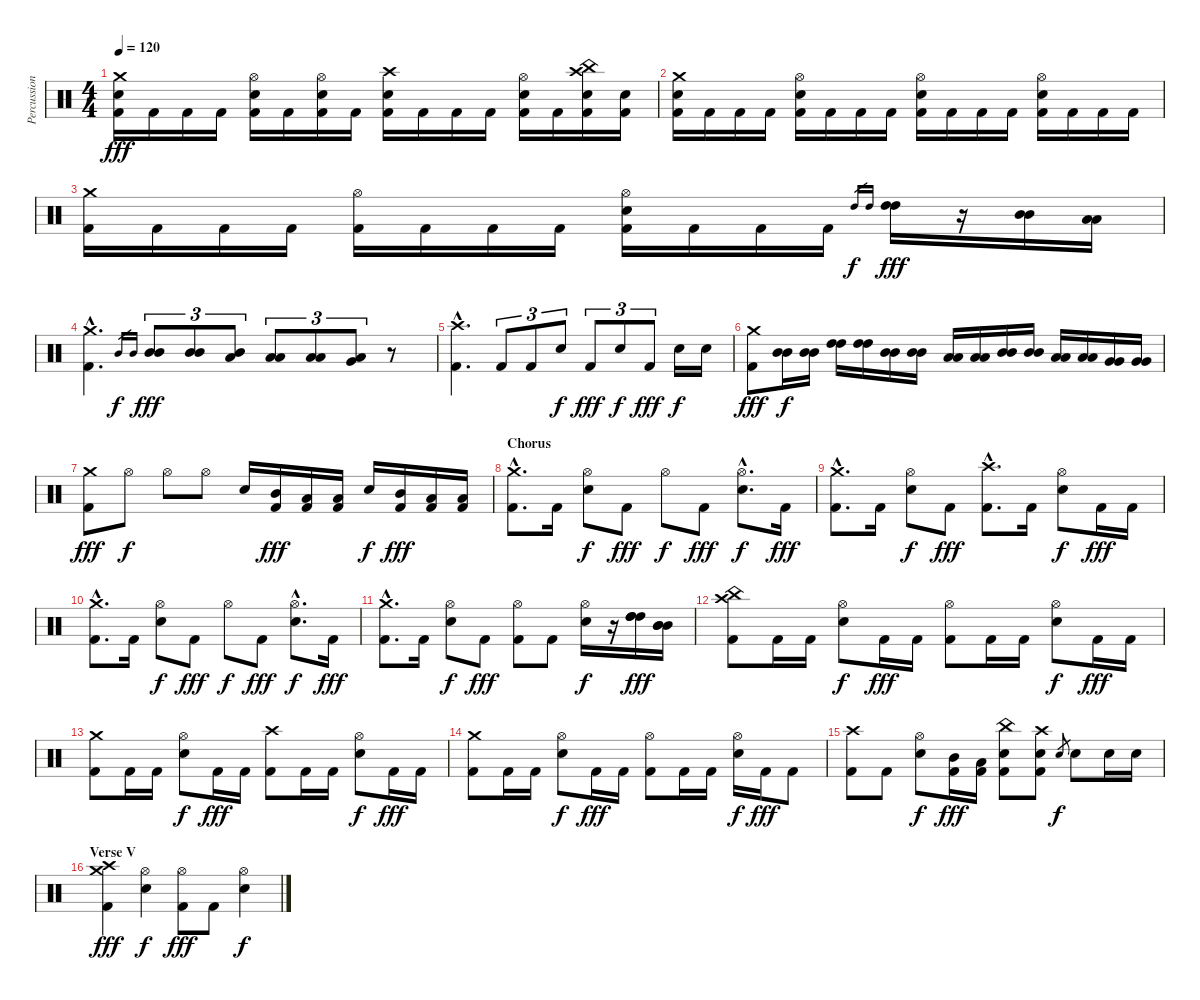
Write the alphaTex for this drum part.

\track ("Percussion" "Percussion") {instrument percussion}
\staff {score}
\articulation defaults
\ts (4 4)
\tempo 120
\clef neutral
\ks c
("Crash medium (hit)" "Snare (hit) 2" "Kick (hit) 2").16{dy fff} "Kick (hit) 2".16 "Kick (hit) 2".16 "Kick (hit) 2".16 ("Hi-Hat (open)" "Snare (hit) 2" "Kick (hit) 2").16 "Kick (hit) 2".16 ("Hi-Hat (open)" "Snare (hit) 2" "Kick (hit) 2").16 "Kick (hit) 2".16 ("Crash high (hit)" "Snare (hit) 2" "Kick (hit) 2").16 "Kick (hit) 2".16 "Kick (hit) 2".16 "Kick (hit) 2".16 ("Hi-Hat (open)" "Snare (hit) 2" "Kick (hit) 2").16 "Kick (hit) 2".16 ("China (hit)" "Crash high (hit)" "Snare (hit) 2" "Kick (hit) 2").16 ("Snare (hit) 2" "Kick (hit) 2").16 |
("Crash medium (hit)" "Snare (hit) 2" "Kick (hit) 2").16 "Kick (hit) 2".16 "Kick (hit) 2".16 "Kick (hit) 2".16 ("Hi-Hat (open)" "Snare (hit) 2" "Kick (hit) 2").16 "Kick (hit) 2".16 "Kick (hit) 2".16 "Kick (hit) 2".16 ("Hi-Hat (open)" "Snare (hit) 2" "Kick (hit) 2").16 "Kick (hit) 2".16 "Kick (hit) 2".16 "Kick (hit) 2".16 ("Hi-Hat (open)" "Snare (hit) 2" "Kick (hit) 2").16 "Kick (hit) 2".16 "Kick (hit) 2".16 "Kick (hit) 2".16 |
("Crash medium (hit)" "Kick (hit) 2").16 "Kick (hit) 2".16 "Kick (hit) 2".16 "Kick (hit) 2".16 ("Hi-Hat (open)" "Kick (hit) 2").16 "Kick (hit) 2".16 "Kick (hit) 2".16 "Kick (hit) 2".16 ("Hi-Hat (open)" "Snare (hit) 2" "Kick (hit) 2").16 "Kick (hit) 2".16 "Kick (hit) 2".16 "Kick (hit) 2".16 "High Tom (hit)".16{gr dy f} "High Tom (hit)".16{gr} ("High Tom (hit)" "High Tom (hit)").16{dy fff} r.16 ("Mid Tom (hit)" "Mid Tom (hit)").16 ("Low Tom (hit)" "Low Tom (hit)").16 |
("Crash medium (hit)"{hac} "Kick (hit) 2"{hac}).4{d} "Mid Tom (hit)".16{gr dy f} "Mid Tom (hit)".16{gr} ("Mid Tom (hit)" "Mid Tom (hit)").8{tu (3 2) dy fff} ("Mid Tom (hit)" "Mid Tom (hit)").8{tu (3 2)} ("Low Tom (hit)" "Mid Tom (hit)").8{tu (3 2)} ("Low Tom (hit)" "Low Tom (hit)").8{tu (3 2)} ("Low Tom (hit)" "Low Tom (hit)").8{tu (3 2)} ("Very Low Tom (hit)" "Low Tom (hit)").8{tu (3 2)} r.8 |
("Crash high (hit)"{hac} "Kick (hit) 2"{hac}).4{d} "Kick (hit) 2".8{tu (3 2)} "Kick (hit) 2".8{tu (3 2)} "Snare (hit) 2".8{tu (3 2) dy f} "Kick (hit) 2".8{tu (3 2) dy fff} "Snare (hit) 2".8{tu (3 2) dy f} "Kick (hit) 2".8{tu (3 2) dy fff} "Snare (hit) 2".16{dy f} "Snare (hit) 2".16 |
("Crash medium (hit)" "Kick (hit) 2").8{dy fff} ("Mid Tom (hit)" "Mid Tom (hit)").16{dy f} ("Mid Tom (hit)" "Mid Tom (hit)").16 ("High Tom (hit)" "High Tom (hit)").16 ("High Tom (hit)" "High Tom (hit)").16 ("Mid Tom (hit)" "Mid Tom (hit)").16 ("Mid Tom (hit)" "Mid Tom (hit)").16 ("Low Tom (hit)" "Low Tom (hit)").16 ("Low Tom (hit)" "Low Tom (hit)").16 ("Mid Tom (hit)" "Mid Tom (hit)").16 ("Mid Tom (hit)" "Mid Tom (hit)").16 ("Low Tom (hit)" "Low Tom (hit)").16 ("Low Tom (hit)" "Low Tom (hit)").16 ("Very Low Tom (hit)" "Very Low Tom (hit)").16 ("Very Low Tom (hit)" "Very Low Tom (hit)").16 |
("Crash medium (hit)" "Kick (hit) 2").8{dy fff} "Hi-Hat (open)".8{dy f} "Hi-Hat (open)".8 "Hi-Hat (open)".8 "Snare (hit) 2".16 ("Mid Tom (hit)" "Kick (hit) 2").16{dy fff} ("Low Tom (hit)" "Kick (hit) 2").16 ("Low Tom (hit)" "Kick (hit) 2").16 "Snare (hit) 2".16{dy f} ("Mid Tom (hit)" "Kick (hit) 2").16{dy fff} ("Low Tom (hit)" "Kick (hit) 2").16 ("Low Tom (hit)" "Kick (hit) 2").16 |
\section ("" "Chorus")
("Crash medium (hit)"{hac} "Kick (hit) 2"{hac}).8{d} "Kick (hit) 2".16 ("Hi-Hat (open)" "Snare (hit) 2").8{dy f} "Kick (hit) 2".8{dy fff} "Hi-Hat (open)".8{dy f} "Kick (hit) 2".8{dy fff} ("Hi-Hat (open)"{hac} "Snare (hit) 2"{hac}).8{d dy f} "Kick (hit) 2".16{dy fff} |
("Crash medium (hit)"{hac} "Kick (hit) 2"{hac}).8{d} "Kick (hit) 2".16 ("Hi-Hat (open)" "Snare (hit) 2").8{dy f} "Kick (hit) 2".8{dy fff} ("Crash high (hit)"{hac} "Kick (hit) 2"{hac}).8{d} "Kick (hit) 2".16 ("Hi-Hat (open)" "Snare (hit) 2").8{dy f} "Kick (hit) 2".16{dy fff} "Kick (hit) 2".16 |
("Crash medium (hit)"{hac} "Kick (hit) 2"{hac}).8{d} "Kick (hit) 2".16 ("Hi-Hat (open)" "Snare (hit) 2").8{dy f} "Kick (hit) 2".8{dy fff} "Hi-Hat (open)".8{dy f} "Kick (hit) 2".8{dy fff} ("Hi-Hat (open)"{hac} "Snare (hit) 2"{hac}).8{d dy f} "Kick (hit) 2".16{dy fff} |
("Crash medium (hit)"{hac} "Kick (hit) 2"{hac}).8{d} "Kick (hit) 2".16 ("Hi-Hat (open)" "Snare (hit) 2").8{dy f} "Kick (hit) 2".8{dy fff} ("Hi-Hat (open)" "Kick (hit) 2").8 "Kick (hit) 2".8 ("Hi-Hat (open)" "Snare (hit) 2").16{dy f} r.16 ("High Tom (hit)" "High Tom (hit)" "High Tom (hit)").16{dy fff} ("Mid Tom (hit)" "Mid Tom (hit)" "Mid Tom (hit)").16 |
("Crash high (hit)" "China (hit)" "Kick (hit) 2").8 "Kick (hit) 2".16 "Kick (hit) 2".16 ("Hi-Hat (open)" "Snare (hit) 2").8{dy f} "Kick (hit) 2".16{dy fff} "Kick (hit) 2".16 ("Hi-Hat (open)" "Kick (hit) 2").8 "Kick (hit) 2".16 "Kick (hit) 2".16 ("Hi-Hat (open)" "Snare (hit) 2").8{dy f} "Kick (hit) 2".16{dy fff} "Kick (hit) 2".16 |
("Crash medium (hit)" "Kick (hit) 2").8 "Kick (hit) 2".16 "Kick (hit) 2".16 ("Hi-Hat (open)" "Snare (hit) 2").8{dy f} "Kick (hit) 2".16{dy fff} "Kick (hit) 2".16 ("Crash high (hit)" "Kick (hit) 2").8 "Kick (hit) 2".16 "Kick (hit) 2".16 ("Hi-Hat (open)" "Snare (hit) 2").8{dy f} "Kick (hit) 2".16{dy fff} "Kick (hit) 2".16 |
("Crash medium (hit)" "Kick (hit) 2").8 "Kick (hit) 2".16 "Kick (hit) 2".16 ("Hi-Hat (open)" "Snare (hit) 2").8{dy f} "Kick (hit) 2".16{dy fff} "Kick (hit) 2".16 ("Hi-Hat (open)" "Kick (hit) 2").8 "Kick (hit) 2".16 "Kick (hit) 2".16 ("Hi-Hat (open)" "Snare (hit) 2").16{dy f} "Kick (hit) 2".16{dy fff} "Kick (hit) 2".8 |
("Crash high (hit)" "Kick (hit) 2").8 "Kick (hit) 2".8 ("Hi-Hat (open)" "Snare (hit) 2").8{dy f} ("Mid Tom (hit)" "Kick (hit) 2").16{dy fff} ("Low Tom (hit)" "Kick (hit) 2").16 ("China (hit)" "Snare (hit) 2" "Kick (hit) 2").8 ("Crash high (hit)" "Snare (hit) 2" "Kick (hit) 2").8 "Snare (hit) 2".8{gr dy f} "Snare (hit) 2".8 "Snare (hit) 2".16 "Snare (hit) 2".16 |
\section ("" "Verse V")
("Crash high (hit)" "Crash medium (hit)" "Kick (hit) 2").4{dy fff} ("Hi-Hat (open)" "Snare (hit) 2").4{dy f} ("Hi-Hat (open)" "Kick (hit) 2").8{dy fff} "Kick (hit) 2".8 ("Hi-Hat (open)" "Snare (hit) 2").4{dy f}
